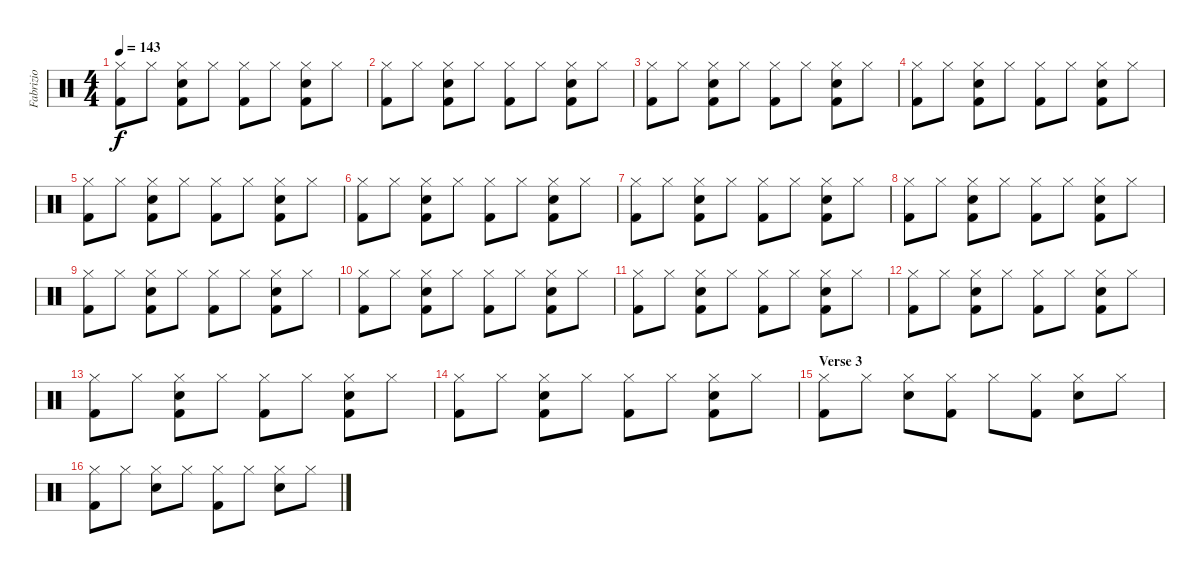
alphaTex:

\track ("Fabrizio" "Fabrizio") {instrument percussion}
\staff {score}
\articulation defaults
\ts (4 4)
\tempo 143
\clef neutral
\ks c
("Hi-Hat (closed)" "Kick (hit) 2").8{dy f} "Hi-Hat (closed)".8 ("Hi-Hat (closed)" "Electric Snare (hit)" "Kick (hit) 2").8 "Hi-Hat (closed)".8 ("Hi-Hat (closed)" "Kick (hit) 2").8 "Hi-Hat (closed)".8 ("Hi-Hat (closed)" "Electric Snare (hit)" "Kick (hit) 2").8 "Hi-Hat (closed)".8 |
("Hi-Hat (closed)" "Kick (hit) 2").8 "Hi-Hat (closed)".8 ("Hi-Hat (closed)" "Electric Snare (hit)" "Kick (hit) 2").8 "Hi-Hat (closed)".8 ("Hi-Hat (closed)" "Kick (hit) 2").8 "Hi-Hat (closed)".8 ("Hi-Hat (closed)" "Electric Snare (hit)" "Kick (hit) 2").8 "Hi-Hat (closed)".8 |
("Hi-Hat (closed)" "Kick (hit) 2").8 "Hi-Hat (closed)".8 ("Hi-Hat (closed)" "Electric Snare (hit)" "Kick (hit) 2").8 "Hi-Hat (closed)".8 ("Hi-Hat (closed)" "Kick (hit) 2").8 "Hi-Hat (closed)".8 ("Hi-Hat (closed)" "Electric Snare (hit)" "Kick (hit) 2").8 "Hi-Hat (closed)".8 |
("Hi-Hat (closed)" "Kick (hit) 2").8 "Hi-Hat (closed)".8 ("Hi-Hat (closed)" "Electric Snare (hit)" "Kick (hit) 2").8 "Hi-Hat (closed)".8 ("Hi-Hat (closed)" "Kick (hit) 2").8 "Hi-Hat (closed)".8 ("Hi-Hat (closed)" "Electric Snare (hit)" "Kick (hit) 2").8 "Hi-Hat (closed)".8 |
("Hi-Hat (closed)" "Kick (hit) 2").8 "Hi-Hat (closed)".8 ("Hi-Hat (closed)" "Electric Snare (hit)" "Kick (hit) 2").8 "Hi-Hat (closed)".8 ("Hi-Hat (closed)" "Kick (hit) 2").8 "Hi-Hat (closed)".8 ("Hi-Hat (closed)" "Electric Snare (hit)" "Kick (hit) 2").8 "Hi-Hat (closed)".8 |
("Hi-Hat (closed)" "Kick (hit) 2").8 "Hi-Hat (closed)".8 ("Hi-Hat (closed)" "Electric Snare (hit)" "Kick (hit) 2").8 "Hi-Hat (closed)".8 ("Hi-Hat (closed)" "Kick (hit) 2").8 "Hi-Hat (closed)".8 ("Hi-Hat (closed)" "Electric Snare (hit)" "Kick (hit) 2").8 "Hi-Hat (closed)".8 |
("Hi-Hat (closed)" "Kick (hit) 2").8 "Hi-Hat (closed)".8 ("Hi-Hat (closed)" "Electric Snare (hit)" "Kick (hit) 2").8 "Hi-Hat (closed)".8 ("Hi-Hat (closed)" "Kick (hit) 2").8 "Hi-Hat (closed)".8 ("Hi-Hat (closed)" "Electric Snare (hit)" "Kick (hit) 2").8 "Hi-Hat (closed)".8 |
("Hi-Hat (closed)" "Kick (hit) 2").8 "Hi-Hat (closed)".8 ("Hi-Hat (closed)" "Electric Snare (hit)" "Kick (hit) 2").8 "Hi-Hat (closed)".8 ("Hi-Hat (closed)" "Kick (hit) 2").8 "Hi-Hat (closed)".8 ("Hi-Hat (closed)" "Electric Snare (hit)" "Kick (hit) 2").8 "Hi-Hat (closed)".8 |
("Hi-Hat (closed)" "Kick (hit) 2").8 "Hi-Hat (closed)".8 ("Hi-Hat (closed)" "Electric Snare (hit)" "Kick (hit) 2").8 "Hi-Hat (closed)".8 ("Hi-Hat (closed)" "Kick (hit) 2").8 "Hi-Hat (closed)".8 ("Hi-Hat (closed)" "Electric Snare (hit)" "Kick (hit) 2").8 "Hi-Hat (closed)".8 |
("Hi-Hat (closed)" "Kick (hit) 2").8 "Hi-Hat (closed)".8 ("Hi-Hat (closed)" "Electric Snare (hit)" "Kick (hit) 2").8 "Hi-Hat (closed)".8 ("Hi-Hat (closed)" "Kick (hit) 2").8 "Hi-Hat (closed)".8 ("Hi-Hat (closed)" "Electric Snare (hit)" "Kick (hit) 2").8 "Hi-Hat (closed)".8 |
("Hi-Hat (closed)" "Kick (hit) 2").8 "Hi-Hat (closed)".8 ("Hi-Hat (closed)" "Electric Snare (hit)" "Kick (hit) 2").8 "Hi-Hat (closed)".8 ("Hi-Hat (closed)" "Kick (hit) 2").8 "Hi-Hat (closed)".8 ("Hi-Hat (closed)" "Electric Snare (hit)" "Kick (hit) 2").8 "Hi-Hat (closed)".8 |
("Hi-Hat (closed)" "Kick (hit) 2").8 "Hi-Hat (closed)".8 ("Hi-Hat (closed)" "Electric Snare (hit)" "Kick (hit) 2").8 "Hi-Hat (closed)".8 ("Hi-Hat (closed)" "Kick (hit) 2").8 "Hi-Hat (closed)".8 ("Hi-Hat (closed)" "Electric Snare (hit)" "Kick (hit) 2").8 "Hi-Hat (closed)".8 |
("Hi-Hat (closed)" "Kick (hit) 2").8 "Hi-Hat (closed)".8 ("Hi-Hat (closed)" "Electric Snare (hit)" "Kick (hit) 2").8 "Hi-Hat (closed)".8 ("Hi-Hat (closed)" "Kick (hit) 2").8 "Hi-Hat (closed)".8 ("Hi-Hat (closed)" "Electric Snare (hit)" "Kick (hit) 2").8 "Hi-Hat (closed)".8 |
("Hi-Hat (closed)" "Kick (hit) 2").8 "Hi-Hat (closed)".8 ("Hi-Hat (closed)" "Electric Snare (hit)" "Kick (hit) 2").8 "Hi-Hat (closed)".8 ("Hi-Hat (closed)" "Kick (hit) 2").8 "Hi-Hat (closed)".8 ("Hi-Hat (closed)" "Electric Snare (hit)" "Kick (hit) 2").8 "Hi-Hat (closed)".8 |
\section ("" "Verse 3")
("Hi-Hat (closed)" "Kick (hit) 2").8 "Hi-Hat (closed)".8 ("Hi-Hat (closed)" "Electric Snare (hit)").8 ("Hi-Hat (closed)" "Kick (hit) 2").8 "Hi-Hat (closed)".8 ("Hi-Hat (closed)" "Kick (hit) 2").8 ("Hi-Hat (closed)" "Electric Snare (hit)").8 "Hi-Hat (closed)".8 |
("Hi-Hat (closed)" "Kick (hit) 2").8 "Hi-Hat (closed)".8 ("Hi-Hat (closed)" "Electric Snare (hit)").8 "Hi-Hat (closed)".8 ("Hi-Hat (closed)" "Kick (hit) 2").8 "Hi-Hat (closed)".8 ("Hi-Hat (closed)" "Electric Snare (hit)").8 "Hi-Hat (closed)".8
